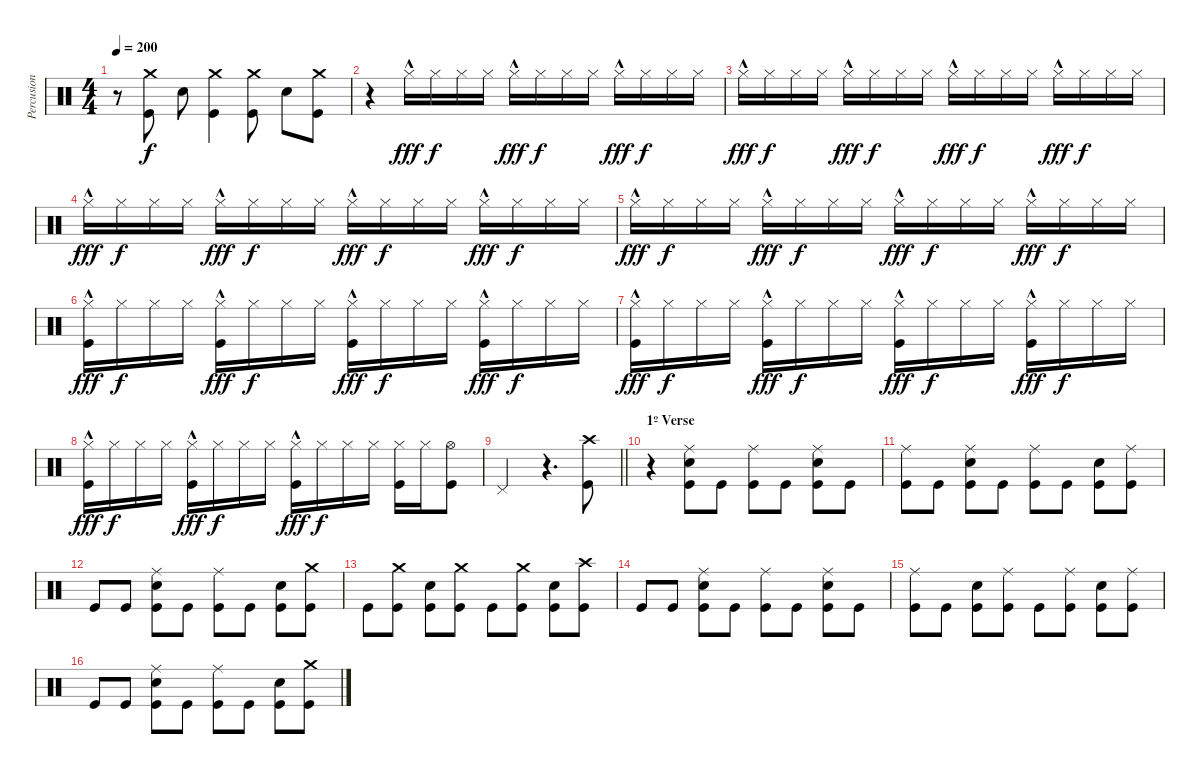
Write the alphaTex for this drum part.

\track ("Percusion" "Percusion") {instrument percussion}
\staff {score}
\articulation defaults
\ts (4 4)
\tempo 200
\clef neutral
\ks c
r.8{dy f} ("Crash medium (hit)" "Kick (hit)").8 "Snare (hit) 2".8 ("Crash medium (hit)" "Kick (hit)").4 ("Kick (hit)" "Crash medium (hit)").8 "Snare (hit) 2".8 ("Crash medium (hit)" "Kick (hit)").8 |
r.4 "Hi-Hat (closed)"{hac}.16{dy fff} "Hi-Hat (closed)".16{dy f} "Hi-Hat (closed)".16 "Hi-Hat (closed)".16 "Hi-Hat (closed)"{hac}.16{dy fff} "Hi-Hat (closed)".16{dy f} "Hi-Hat (closed)".16 "Hi-Hat (closed)".16 "Hi-Hat (closed)"{hac}.16{dy fff} "Hi-Hat (closed)".16{dy f} "Hi-Hat (closed)".16 "Hi-Hat (closed)".16 |
"Hi-Hat (closed)"{hac}.16{dy fff} "Hi-Hat (closed)".16{dy f} "Hi-Hat (closed)".16 "Hi-Hat (closed)".16 "Hi-Hat (closed)"{hac}.16{dy fff} "Hi-Hat (closed)".16{dy f} "Hi-Hat (closed)".16 "Hi-Hat (closed)".16 "Hi-Hat (closed)"{hac}.16{dy fff} "Hi-Hat (closed)".16{dy f} "Hi-Hat (closed)".16 "Hi-Hat (closed)".16 "Hi-Hat (closed)"{hac}.16{dy fff} "Hi-Hat (closed)".16{dy f} "Hi-Hat (closed)".16 "Hi-Hat (closed)".16 |
"Hi-Hat (closed)"{hac}.16{dy fff} "Hi-Hat (closed)".16{dy f} "Hi-Hat (closed)".16 "Hi-Hat (closed)".16 "Hi-Hat (closed)"{hac}.16{dy fff} "Hi-Hat (closed)".16{dy f} "Hi-Hat (closed)".16 "Hi-Hat (closed)".16 "Hi-Hat (closed)"{hac}.16{dy fff} "Hi-Hat (closed)".16{dy f} "Hi-Hat (closed)".16 "Hi-Hat (closed)".16 "Hi-Hat (closed)"{hac}.16{dy fff} "Hi-Hat (closed)".16{dy f} "Hi-Hat (closed)".16 "Hi-Hat (closed)".16 |
"Hi-Hat (closed)"{hac}.16{dy fff} "Hi-Hat (closed)".16{dy f} "Hi-Hat (closed)".16 "Hi-Hat (closed)".16 "Hi-Hat (closed)"{hac}.16{dy fff} "Hi-Hat (closed)".16{dy f} "Hi-Hat (closed)".16 "Hi-Hat (closed)".16 "Hi-Hat (closed)"{hac}.16{dy fff} "Hi-Hat (closed)".16{dy f} "Hi-Hat (closed)".16 "Hi-Hat (closed)".16 "Hi-Hat (closed)"{hac}.16{dy fff} "Hi-Hat (closed)".16{dy f} "Hi-Hat (closed)".16 "Hi-Hat (closed)".16 |
("Kick (hit)"{hac} "Hi-Hat (closed)").16{dy fff} "Hi-Hat (closed)".16{dy f} "Hi-Hat (closed)".16 "Hi-Hat (closed)".16 ("Kick (hit)"{hac} "Hi-Hat (closed)").16{dy fff} "Hi-Hat (closed)".16{dy f} "Hi-Hat (closed)".16 "Hi-Hat (closed)".16 ("Kick (hit)"{hac} "Hi-Hat (closed)").16{dy fff} "Hi-Hat (closed)".16{dy f} "Hi-Hat (closed)".16 "Hi-Hat (closed)".16 ("Kick (hit)"{hac} "Hi-Hat (closed)").16{dy fff} "Hi-Hat (closed)".16{dy f} "Hi-Hat (closed)".16 "Hi-Hat (closed)".16 |
("Kick (hit)"{hac} "Hi-Hat (closed)").16{dy fff} "Hi-Hat (closed)".16{dy f} "Hi-Hat (closed)".16 "Hi-Hat (closed)".16 ("Kick (hit)"{hac} "Hi-Hat (closed)").16{dy fff} "Hi-Hat (closed)".16{dy f} "Hi-Hat (closed)".16 "Hi-Hat (closed)".16 ("Kick (hit)"{hac} "Hi-Hat (closed)").16{dy fff} "Hi-Hat (closed)".16{dy f} "Hi-Hat (closed)".16 "Hi-Hat (closed)".16 ("Kick (hit)"{hac} "Hi-Hat (closed)").16{dy fff} "Hi-Hat (closed)".16{dy f} "Hi-Hat (closed)".16 "Hi-Hat (closed)".16 |
("Kick (hit)"{hac} "Hi-Hat (closed)").16{dy fff} "Hi-Hat (closed)".16{dy f} "Hi-Hat (closed)".16 "Hi-Hat (closed)".16 ("Kick (hit)"{hac} "Hi-Hat (closed)").16{dy fff} "Hi-Hat (closed)".16{dy f} "Hi-Hat (closed)".16 "Hi-Hat (closed)".16 ("Kick (hit)"{hac} "Hi-Hat (closed)").16{dy fff} "Hi-Hat (closed)".16{dy f} "Hi-Hat (closed)".16 "Hi-Hat (closed)".16 ("Hi-Hat (closed)" "Kick (hit)").16 "Hi-Hat (closed)".16 ("Hi-Hat (open)" "Kick (hit)").8 |
\barLineRight lightlight "Pedal Hi-Hat (hit)".2
r.4{d} ("Crash high (hit)" "Kick (hit)").8 |
\section ("" "1º Verse")
r.4 ("Snare (hit) 2" "Ride (middle)" "Kick (hit)").8 "Kick (hit)".8 ("Ride (middle)" "Kick (hit)").8 "Kick (hit)".8 ("Kick (hit)" "Snare (hit) 2" "Ride (middle)").8 "Kick (hit)".8 |
("Kick (hit)" "Ride (middle)").8 "Kick (hit)".8 ("Kick (hit)" "Snare (hit) 2" "Ride (middle)").8 "Kick (hit)".8 ("Kick (hit)" "Ride (middle)").8 "Kick (hit)".8 ("Kick (hit)" "Snare (hit) 2").8 ("Kick (hit)" "Ride (middle)").8 |
"Kick (hit)".8 "Kick (hit)".8 ("Kick (hit)" "Ride (middle)" "Snare (hit) 2").8 "Kick (hit)".8 ("Ride (middle)" "Kick (hit)").8 "Kick (hit)".8 ("Kick (hit)" "Snare (hit) 2").8 ("Crash medium (hit)" "Kick (hit)").8 |
"Kick (hit)".8 ("Kick (hit)" "Crash medium (hit)").8 ("Kick (hit)" "Snare (hit) 2").8 ("Kick (hit)" "Crash medium (hit)").8 "Kick (hit)".8 ("Kick (hit)" "Crash medium (hit)").8 ("Kick (hit)" "Snare (hit) 2").8 ("Kick (hit)" "Crash high (hit)").8 |
"Kick (hit)".8 "Kick (hit)".8 ("Kick (hit)" "Snare (hit) 2" "Ride (middle)").8 "Kick (hit)".8 ("Kick (hit)" "Ride (middle)").8 "Kick (hit)".8 ("Kick (hit)" "Snare (hit) 2" "Ride (middle)").8 "Kick (hit)".8 |
("Kick (hit)" "Ride (middle)").8 "Kick (hit)".8 ("Kick (hit)" "Snare (hit) 2").8 ("Kick (hit)" "Ride (middle)").8 "Kick (hit)".8 ("Kick (hit)" "Ride (middle)").8 ("Kick (hit)" "Snare (hit) 2").8 ("Kick (hit)" "Ride (middle)").8 |
"Kick (hit)".8 "Kick (hit)".8 ("Kick (hit)" "Ride (middle)" "Snare (hit) 2").8 "Kick (hit)".8 ("Ride (middle)" "Kick (hit)").8 "Kick (hit)".8 ("Kick (hit)" "Snare (hit) 2").8 ("Crash medium (hit)" "Kick (hit)").8
